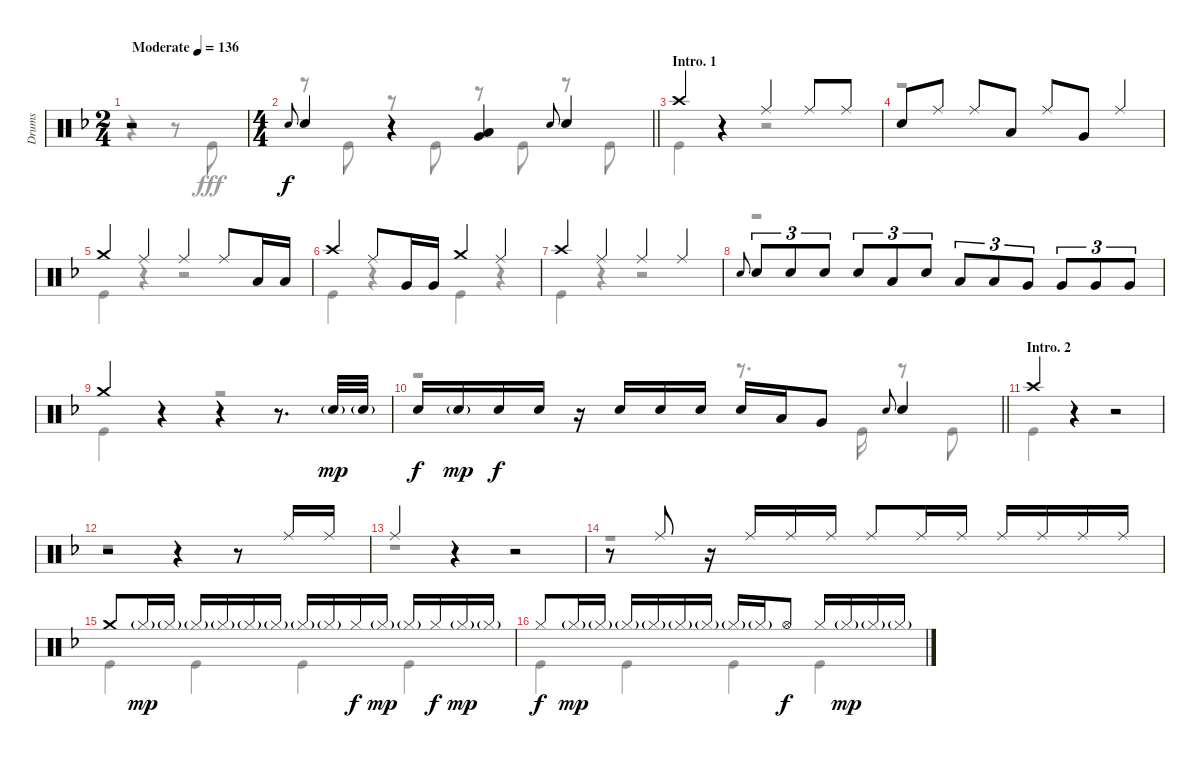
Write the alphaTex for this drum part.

\track ("Drums" "Drums") {instrument percussion}
\staff {score}
\articulation defaults
\voice
\ts (2 4)
\tempo (136 "Moderate")
\clef neutral
\ks f
r.2{dy f} |
\ts (4 4)
\barLineRight lightlight "Snare (hit) 2".8{gr onbeat} "Snare (hit) 2".4
r.4 ("Low Tom (hit)" "Very Low Tom (hit)").4 "Snare (hit) 2".8{gr onbeat} "Snare (hit) 2".4 |
\section ("" "Intro. 1")
"Crash high (hit)".4 r.4 "Ride (middle)".4 "Ride (middle)".8 "Ride (middle)".8 |
"Snare (hit) 2".8 "Ride (middle)".8 "Ride (middle)".8 "Low Tom (hit)".8 "Ride (middle)".8 "Very Low Tom (hit)".8 "Ride (middle)".4 |
"Crash medium (hit)".4 "Ride (middle)".4 "Ride (middle)".4 "Ride (middle)".8 "Low Tom (hit)".16 "Low Tom (hit)".16 |
"Crash high (hit)".4 "Ride (middle)".8 "Very Low Tom (hit)".16 "Very Low Tom (hit)".16 "Crash medium (hit)".4 "Ride (middle)".4 |
"Crash high (hit)".4 "Ride (middle)".4 "Ride (middle)".4 "Ride (middle)".4 |
"Snare (hit) 2".8{gr onbeat} "Snare (hit) 2".8{tu (3 2)} "Snare (hit) 2".8{tu (3 2)} "Snare (hit) 2".8{tu (3 2)} "Snare (hit) 2".8{tu (3 2)} "Low Tom (hit)".8{tu (3 2)} "Snare (hit) 2".8{tu (3 2)} "Low Tom (hit)".8{tu (3 2)} "Low Tom (hit)".8{tu (3 2)} "Very Low Tom (hit)".8{tu (3 2)} "Very Low Tom (hit)".8{tu (3 2)} "Very Low Tom (hit)".8{tu (3 2)} "Very Low Tom (hit)".8{tu (3 2)} |
"Crash medium (hit)".4 r.4 r.4 r.8{d} "Snare (hit) 2"{g}.32{dy mp} "Snare (hit) 2"{g}.32 |
\barLineRight lightlight "Snare (hit) 2".16{dy f} "Snare (hit) 2"{g}.16{dy mp} "Snare (hit) 2".16{dy f} "Snare (hit) 2".16
r.16 "Snare (hit) 2".16 "Snare (hit) 2".16 "Snare (hit) 2".16 "Snare (hit) 2".16 "Low Tom (hit)".16 "Very Low Tom (hit)".8 "Snare (hit) 2".8{gr onbeat} "Snare (hit) 2".4 |
\section ("" "Intro. 2")
"Crash high (hit)".4 r.4 r.2 |
r.2 r.4 r.8 "Ride (middle)".16 "Ride (middle)".16 |
"Ride (middle)".4 r.4 r.2 |
r.8 "Ride (middle)".8 r.16 "Ride (middle)".16 "Ride (middle)".16 "Ride (middle)".16 "Ride (middle)".8 "Ride (middle)".16 "Ride (middle)".16 "Ride (middle)".16 "Ride (middle)".16 "Ride (middle)".16 "Ride (middle)".16 |
"Crash medium (hit)".8 "Hi-Hat (closed)"{g}.16{dy mp} "Hi-Hat (closed)"{g}.16 "Hi-Hat (closed)"{g}.16 "Hi-Hat (closed)"{g}.16 "Hi-Hat (closed)"{g}.16 "Hi-Hat (closed)"{g}.16 "Hi-Hat (closed)"{g}.16 "Hi-Hat (closed)"{g}.16 "Hi-Hat (closed)".16{dy f} "Hi-Hat (closed)"{g}.16{dy mp} "Hi-Hat (closed)"{g}.16 "Hi-Hat (closed)".16{dy f} "Hi-Hat (closed)"{g}.16{dy mp} "Hi-Hat (closed)"{g}.16 |
"Hi-Hat (closed)".8{dy f} "Hi-Hat (closed)"{g}.16{dy mp} "Hi-Hat (closed)"{g}.16 "Hi-Hat (closed)"{g}.16 "Hi-Hat (closed)"{g}.16 "Hi-Hat (closed)"{g}.16 "Hi-Hat (closed)"{g}.16 "Hi-Hat (closed)"{g}.16 "Hi-Hat (closed)"{g}.16 "Hi-Hat (open)".8{dy f} "Hi-Hat (closed)".16 "Hi-Hat (closed)"{g}.16{dy mp} "Hi-Hat (closed)"{g}.16 "Hi-Hat (closed)"{g}.16
\voice
\clef neutral
\ottava regular
\simile none
\ks f
r.4{dy fff} r.8 "Kick (hit)".8 |
\barLineRight lightlight
r.8 "Kick (hit)".8 r.8 "Kick (hit)".8 r.8 "Kick (hit)".8 r.8 "Kick (hit)".8 |
"Kick (hit)".4 r.4 r.2 |
r.1 |
"Kick (hit)".4 r.4 r.2 |
"Kick (hit)".4 r.4 "Kick (hit)".4 r.4 |
"Kick (hit)".4 r.4 r.2 |
r.1 |
"Kick (hit)".4 r.4 r.2 |
\barLineRight lightlight
r.2 r.8{d} "Kick (hit)".16 r.8 "Kick (hit)".8 |
"Kick (hit)".4 r.4 r.2 |
r.1 |
r.1 |
r.1 |
"Kick (hit)".4 "Kick (hit)".4 "Kick (hit)".4 "Kick (hit)".4 |
"Kick (hit)".4 "Kick (hit)".4 "Kick (hit)".4 "Kick (hit)".4
